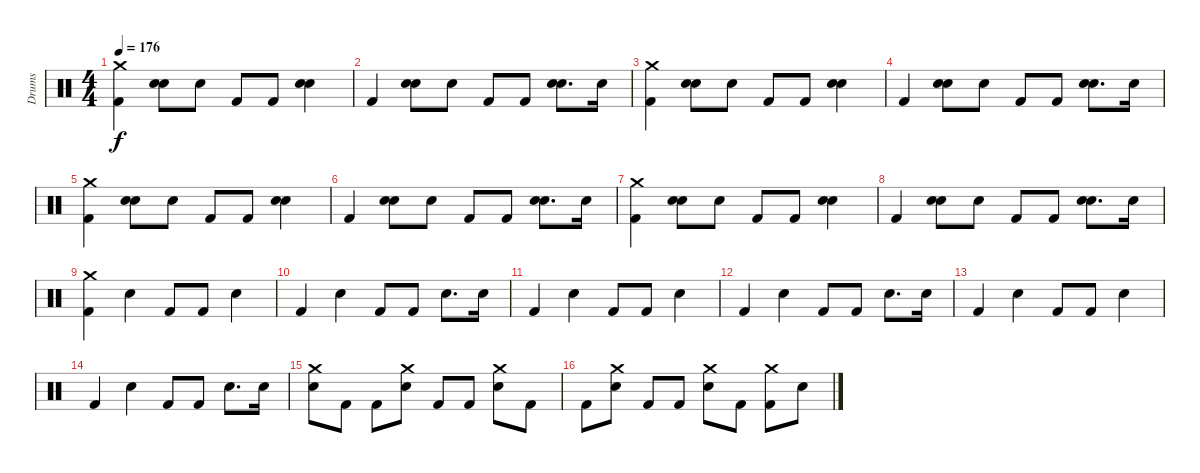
\track ("Drums" "Drums") {instrument percussion}
\staff {score}
\articulation defaults
\ts (4 4)
\tempo 176
\clef neutral
\ks c
("Kick (hit) 2" "Crash medium (hit)").4{dy f volume 15} ("Snare (hit) 2" "Hand Clap (hit)").8 "Hand Clap (hit)".8 "Kick (hit) 2".8 "Kick (hit) 2".8 ("Snare (hit) 2" "Hand Clap (hit)").4 |
"Kick (hit) 2".4 ("Snare (hit) 2" "Hand Clap (hit)").8 "Hand Clap (hit)".8 "Kick (hit) 2".8 "Kick (hit) 2".8 ("Snare (hit) 2" "Hand Clap (hit)").8{d} "Snare (hit) 2".16 |
("Kick (hit) 2" "Crash medium (hit)").4{volume 15} ("Snare (hit) 2" "Hand Clap (hit)").8 "Hand Clap (hit)".8 "Kick (hit) 2".8 "Kick (hit) 2".8 ("Snare (hit) 2" "Hand Clap (hit)").4 |
"Kick (hit) 2".4 ("Snare (hit) 2" "Hand Clap (hit)").8 "Hand Clap (hit)".8 "Kick (hit) 2".8 "Kick (hit) 2".8 ("Snare (hit) 2" "Hand Clap (hit)").8{d} "Snare (hit) 2".16 |
("Kick (hit) 2" "Crash medium (hit)").4{volume 15} ("Snare (hit) 2" "Hand Clap (hit)").8 "Hand Clap (hit)".8 "Kick (hit) 2".8 "Kick (hit) 2".8 ("Snare (hit) 2" "Hand Clap (hit)").4 |
"Kick (hit) 2".4 ("Snare (hit) 2" "Hand Clap (hit)").8 "Hand Clap (hit)".8 "Kick (hit) 2".8 "Kick (hit) 2".8 ("Snare (hit) 2" "Hand Clap (hit)").8{d} "Snare (hit) 2".16 |
("Kick (hit) 2" "Crash medium (hit)").4{volume 15} ("Snare (hit) 2" "Hand Clap (hit)").8 "Hand Clap (hit)".8 "Kick (hit) 2".8 "Kick (hit) 2".8 ("Snare (hit) 2" "Hand Clap (hit)").4 |
"Kick (hit) 2".4 ("Snare (hit) 2" "Hand Clap (hit)").8 "Hand Clap (hit)".8 "Kick (hit) 2".8 "Kick (hit) 2".8 ("Snare (hit) 2" "Hand Clap (hit)").8{d} "Snare (hit) 2".16 |
("Kick (hit) 2" "Crash medium (hit)").4{volume 15} "Snare (hit) 2".4 "Kick (hit) 2".8 "Kick (hit) 2".8 "Snare (hit) 2".4 |
"Kick (hit) 2".4 "Snare (hit) 2".4 "Kick (hit) 2".8 "Kick (hit) 2".8 "Snare (hit) 2".8{d} "Snare (hit) 2".16 |
"Kick (hit) 2".4 "Snare (hit) 2".4 "Kick (hit) 2".8 "Kick (hit) 2".8 "Snare (hit) 2".4 |
"Kick (hit) 2".4 "Snare (hit) 2".4 "Kick (hit) 2".8 "Kick (hit) 2".8 "Snare (hit) 2".8{d} "Snare (hit) 2".16 |
"Kick (hit) 2".4 "Snare (hit) 2".4 "Kick (hit) 2".8 "Kick (hit) 2".8 "Snare (hit) 2".4 |
"Kick (hit) 2".4 "Snare (hit) 2".4 "Kick (hit) 2".8 "Kick (hit) 2".8 "Snare (hit) 2".8{d} "Snare (hit) 2".16 |
("Snare (hit) 2" "Crash medium (hit)").8 "Kick (hit) 2".8 "Kick (hit) 2".8 ("Snare (hit) 2" "Crash medium (hit)").8 "Kick (hit) 2".8 "Kick (hit) 2".8 ("Snare (hit) 2" "Crash medium (hit)").8 "Kick (hit) 2".8 |
"Kick (hit) 2".8 ("Snare (hit) 2" "Crash medium (hit)").8 "Kick (hit) 2".8 "Kick (hit) 2".8 ("Snare (hit) 2" "Crash medium (hit)").8 "Kick (hit) 2".8 ("Kick (hit) 2" "Crash medium (hit)").8 "Snare (hit) 2".8
